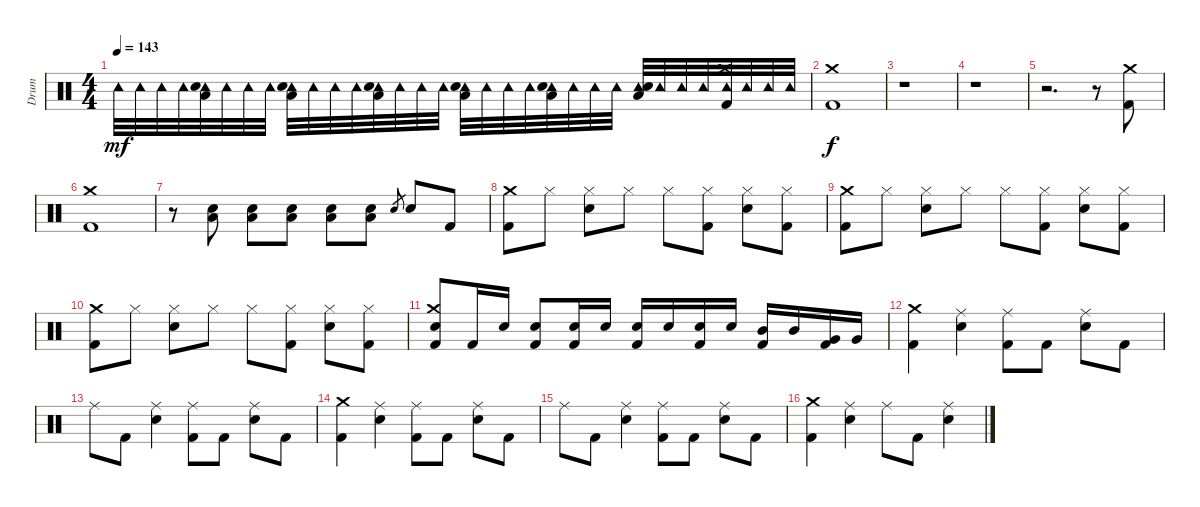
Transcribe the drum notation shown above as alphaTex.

\track ("Drum" "Drum") {instrument percussion}
\staff {score}
\articulation defaults
\ts (4 4)
\tempo 143
\clef neutral
\ks c "Tambourine (hit)".32{dy mf} "Tambourine (hit)".32 "Tambourine (hit)".32 "Tambourine (hit)".32
("Tambourine (hit)" "Snare (hit) 2" "Low Floor Tom (hit)").32 "Tambourine (hit)".32 "Tambourine (hit)".32 "Tambourine (hit)".32 ("Tambourine (hit)" "Snare (hit) 2" "Low Floor Tom (hit)").32 "Tambourine (hit)".32 "Tambourine (hit)".32 "Tambourine (hit)".32 ("Tambourine (hit)" "Snare (hit) 2" "Low Floor Tom (hit)").32 "Tambourine (hit)".32 "Tambourine (hit)".32 "Tambourine (hit)".32 ("Tambourine (hit)" "Snare (hit) 2" "Low Floor Tom (hit)").32 "Tambourine (hit)".32 "Tambourine (hit)".32 "Tambourine (hit)".32 ("Tambourine (hit)" "Snare (hit) 2" "Low Floor Tom (hit)").32 "Tambourine (hit)".32 "Tambourine (hit)".32 "Tambourine (hit)".32 ("Tambourine (hit)" "Snare (hit) 2" "Low Floor Tom (hit)").32 "Tambourine (hit)".32 "Tambourine (hit)".32 "Tambourine (hit)".32 ("Tambourine (hit)" "Crash medium (hit)" "Kick (hit) 2").32 "Tambourine (hit)".32 "Tambourine (hit)".32 "Tambourine (hit)".32 |
("Crash medium (hit)" "Kick (hit) 2").1{dy f} |
r.1 |
r.1 |
r.2{d} r.8 ("Crash medium (hit)" "Kick (hit) 2").8 |
("Crash medium (hit)" "Kick (hit) 2").1 |
r.8 ("Snare (hit) 2" "Low Floor Tom (hit)").8 ("Snare (hit) 2" "Low Floor Tom (hit)").8 ("Snare (hit) 2" "Low Floor Tom (hit)").8 ("Snare (hit) 2" "Low Floor Tom (hit)").8 ("Snare (hit) 2" "Low Floor Tom (hit)").8 "Snare (hit) 2".8{gr} "Snare (hit) 2".8 "Kick (hit) 2".8 |
("Crash medium (hit)" "Kick (hit) 2").8 "Hi-Hat (closed)".8 ("Hi-Hat (closed)" "Snare (hit) 2").8 "Hi-Hat (closed)".8 "Hi-Hat (closed)".8 ("Hi-Hat (closed)" "Kick (hit) 2").8 ("Hi-Hat (closed)" "Snare (hit) 2").8 ("Hi-Hat (closed)" "Kick (hit) 2").8 |
("Crash medium (hit)" "Kick (hit) 2").8 "Hi-Hat (closed)".8 ("Hi-Hat (closed)" "Snare (hit) 2").8 "Hi-Hat (closed)".8 "Hi-Hat (closed)".8 ("Hi-Hat (closed)" "Kick (hit) 2").8 ("Hi-Hat (closed)" "Snare (hit) 2").8 ("Hi-Hat (closed)" "Kick (hit) 2").8 |
("Crash medium (hit)" "Kick (hit) 2").8 "Hi-Hat (closed)".8 ("Hi-Hat (closed)" "Snare (hit) 2").8 "Hi-Hat (closed)".8 "Hi-Hat (closed)".8 ("Hi-Hat (closed)" "Kick (hit) 2").8 ("Hi-Hat (closed)" "Snare (hit) 2").8 ("Hi-Hat (closed)" "Kick (hit) 2").8 |
("Crash medium (hit)" "Snare (hit) 2" "Kick (hit) 2").8 "Kick (hit) 2".16 "Snare (hit) 2".16 ("Snare (hit) 2" "Kick (hit) 2").8 ("Snare (hit) 2" "Kick (hit) 2").16 "Snare (hit) 2".16 ("Snare (hit) 2" "Kick (hit) 2").16 "Snare (hit) 2".16 ("Snare (hit) 2" "Kick (hit) 2").16 "Snare (hit) 2".16 ("Mid Tom (hit)" "Kick (hit) 2").16 "Mid Tom (hit)".16 ("Very Low Tom (hit)" "Kick (hit) 2").16 "Very Low Tom (hit)".16 |
("Crash medium (hit)" "Kick (hit) 2").4 ("Ride (middle)" "Snare (hit) 2").4 ("Ride (middle)" "Kick (hit) 2").8 "Kick (hit) 2".8 ("Ride (middle)" "Snare (hit) 2").8 "Kick (hit) 2".8 |
"Ride (middle)".8 "Kick (hit) 2".8 ("Ride (middle)" "Snare (hit) 2").4 ("Ride (middle)" "Kick (hit) 2").8 "Kick (hit) 2".8 ("Ride (middle)" "Snare (hit) 2").8 "Kick (hit) 2".8 |
("Crash medium (hit)" "Kick (hit) 2").4 ("Ride (middle)" "Snare (hit) 2").4 ("Ride (middle)" "Kick (hit) 2").8 "Kick (hit) 2".8 ("Ride (middle)" "Snare (hit) 2").8 "Kick (hit) 2".8 |
"Ride (middle)".8 "Kick (hit) 2".8 ("Ride (middle)" "Snare (hit) 2").4 ("Ride (middle)" "Kick (hit) 2").8 "Kick (hit) 2".8 ("Ride (middle)" "Snare (hit) 2").8 "Kick (hit) 2".8 |
("Crash medium (hit)" "Kick (hit) 2").4 ("Ride (middle)" "Snare (hit) 2").4 "Ride (middle)".8 "Kick (hit) 2".8 ("Ride (middle)" "Snare (hit) 2").4
